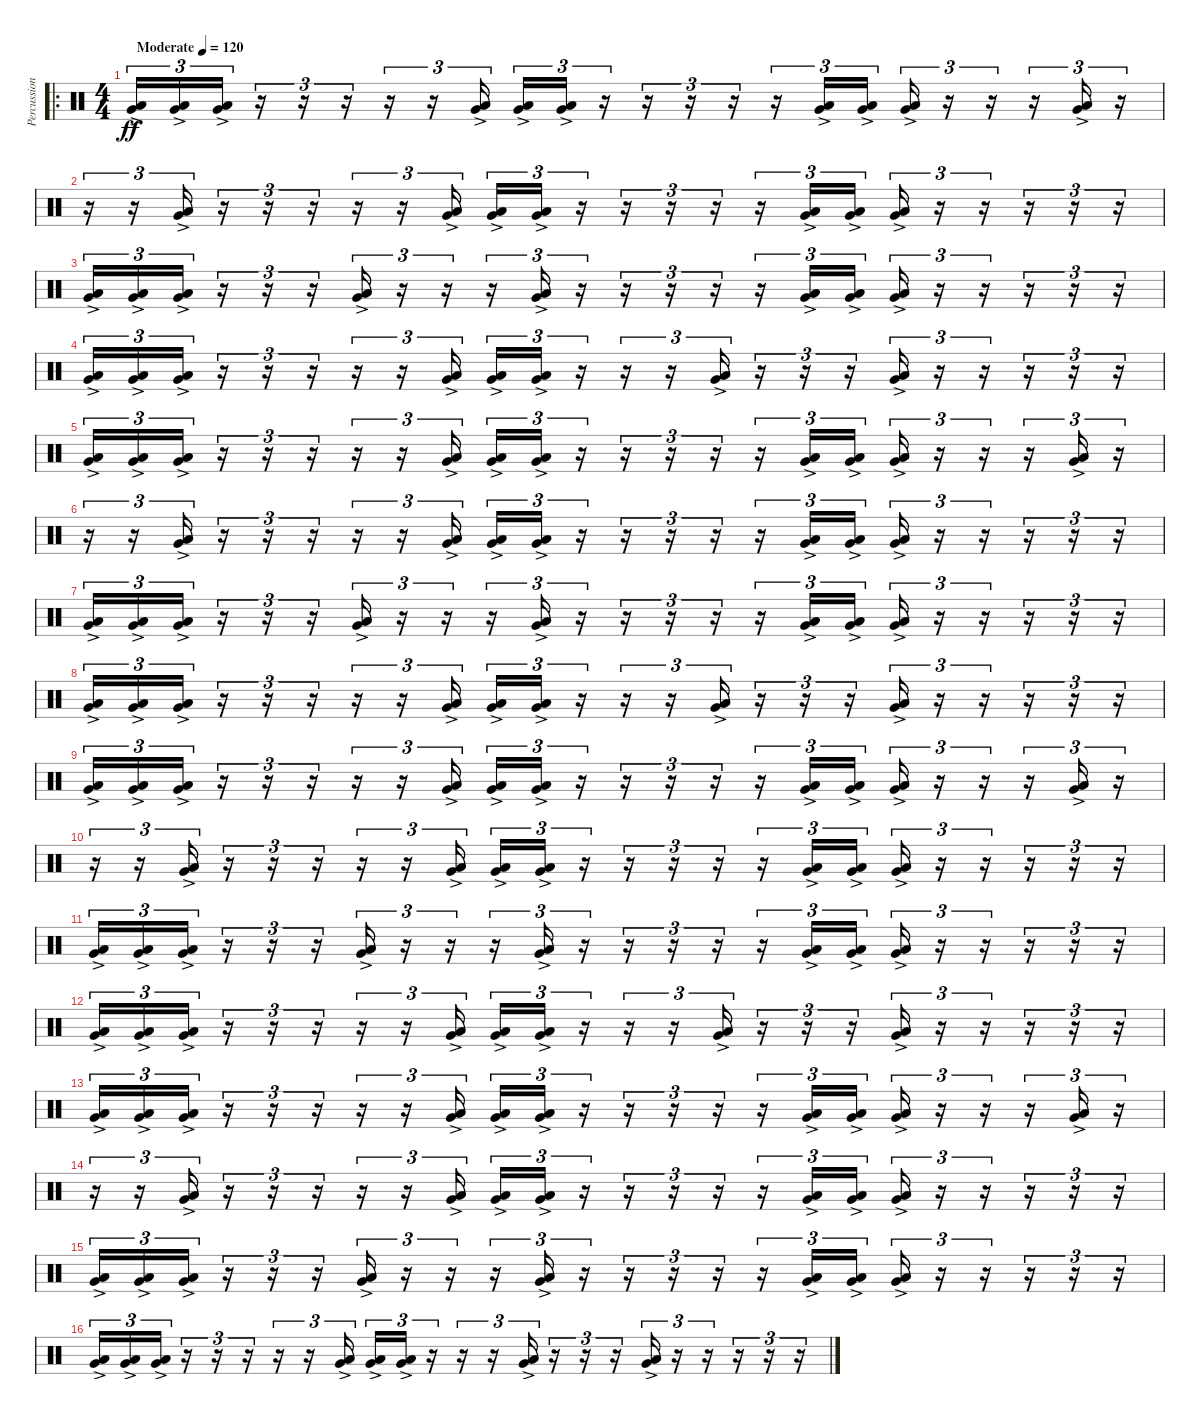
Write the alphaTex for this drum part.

\track ("Percussion" "Percussion") {instrument percussion}
\staff {score}
\articulation defaults
\ro
\ts (4 4)
\tempo (120 "Moderate")
\clef neutral
\ks c
("Very Low Tom (hit)"{ac} "Low Floor Tom (hit)"{ac}).16{tu (3 2) dy ff} ("Very Low Tom (hit)"{ac} "Low Floor Tom (hit)"{ac}).16{tu (3 2)} ("Very Low Tom (hit)"{ac} "Low Floor Tom (hit)"{ac}).16{tu (3 2)} r.16{tu (3 2)} r.16{tu (3 2)} r.16{tu (3 2)} r.16{tu (3 2)} r.16{tu (3 2)} ("Very Low Tom (hit)"{ac} "Low Floor Tom (hit)"{ac}).16{tu (3 2) beam splitsecondary} ("Very Low Tom (hit)"{ac} "Low Floor Tom (hit)"{ac}).16{tu (3 2)} ("Very Low Tom (hit)"{ac} "Low Floor Tom (hit)"{ac}).16{tu (3 2)} r.16{tu (3 2)} r.16{tu (3 2)} r.16{tu (3 2)} r.16{tu (3 2)} r.16{tu (3 2)} ("Very Low Tom (hit)"{ac} "Low Floor Tom (hit)"{ac}).16{tu (3 2)} ("Very Low Tom (hit)"{ac} "Low Floor Tom (hit)"{ac}).16{tu (3 2)} ("Very Low Tom (hit)"{ac} "Low Floor Tom (hit)"{ac}).16{tu (3 2)} r.16{tu (3 2)} r.16{tu (3 2)} r.16{tu (3 2)} ("Very Low Tom (hit)"{ac} "Low Floor Tom (hit)"{ac}).16{tu (3 2)} r.16{tu (3 2)} |
r.16{tu (3 2)} r.16{tu (3 2)} ("Very Low Tom (hit)"{ac} "Low Floor Tom (hit)"{ac}).16{tu (3 2)} r.16{tu (3 2)} r.16{tu (3 2)} r.16{tu (3 2)} r.16{tu (3 2)} r.16{tu (3 2)} ("Very Low Tom (hit)"{ac} "Low Floor Tom (hit)"{ac}).16{tu (3 2) beam splitsecondary} ("Very Low Tom (hit)"{ac} "Low Floor Tom (hit)"{ac}).16{tu (3 2)} ("Very Low Tom (hit)"{ac} "Low Floor Tom (hit)"{ac}).16{tu (3 2)} r.16{tu (3 2)} r.16{tu (3 2)} r.16{tu (3 2)} r.16{tu (3 2)} r.16{tu (3 2)} ("Very Low Tom (hit)"{ac} "Low Floor Tom (hit)"{ac}).16{tu (3 2)} ("Very Low Tom (hit)"{ac} "Low Floor Tom (hit)"{ac}).16{tu (3 2)} ("Very Low Tom (hit)"{ac} "Low Floor Tom (hit)"{ac}).16{tu (3 2)} r.16{tu (3 2)} r.16{tu (3 2)} r.16{tu (3 2)} r.16{tu (3 2)} r.16{tu (3 2)} |
("Very Low Tom (hit)"{ac} "Low Floor Tom (hit)"{ac}).16{tu (3 2)} ("Very Low Tom (hit)"{ac} "Low Floor Tom (hit)"{ac}).16{tu (3 2)} ("Very Low Tom (hit)"{ac} "Low Floor Tom (hit)"{ac}).16{tu (3 2)} r.16{tu (3 2)} r.16{tu (3 2)} r.16{tu (3 2)} ("Very Low Tom (hit)"{ac} "Low Floor Tom (hit)"{ac}).16{tu (3 2)} r.16{tu (3 2)} r.16{tu (3 2)} r.16{tu (3 2)} ("Very Low Tom (hit)"{ac} "Low Floor Tom (hit)"{ac}).16{tu (3 2)} r.16{tu (3 2)} r.16{tu (3 2)} r.16{tu (3 2)} r.16{tu (3 2)} r.16{tu (3 2)} ("Very Low Tom (hit)"{ac} "Low Floor Tom (hit)"{ac}).16{tu (3 2)} ("Very Low Tom (hit)"{ac} "Low Floor Tom (hit)"{ac}).16{tu (3 2)} ("Very Low Tom (hit)"{ac} "Low Floor Tom (hit)"{ac}).16{tu (3 2)} r.16{tu (3 2)} r.16{tu (3 2)} r.16{tu (3 2)} r.16{tu (3 2)} r.16{tu (3 2)} |
("Very Low Tom (hit)"{ac} "Low Floor Tom (hit)"{ac}).16{tu (3 2)} ("Very Low Tom (hit)"{ac} "Low Floor Tom (hit)"{ac}).16{tu (3 2)} ("Very Low Tom (hit)"{ac} "Low Floor Tom (hit)"{ac}).16{tu (3 2)} r.16{tu (3 2)} r.16{tu (3 2)} r.16{tu (3 2)} r.16{tu (3 2)} r.16{tu (3 2)} ("Very Low Tom (hit)"{ac} "Low Floor Tom (hit)"{ac}).16{tu (3 2) beam splitsecondary} ("Very Low Tom (hit)"{ac} "Low Floor Tom (hit)"{ac}).16{tu (3 2)} ("Very Low Tom (hit)"{ac} "Low Floor Tom (hit)"{ac}).16{tu (3 2)} r.16{tu (3 2)} r.16{tu (3 2)} r.16{tu (3 2)} ("Very Low Tom (hit)"{ac} "Low Floor Tom (hit)"{ac}).16{tu (3 2)} r.16{tu (3 2)} r.16{tu (3 2)} r.16{tu (3 2)} ("Very Low Tom (hit)"{ac} "Low Floor Tom (hit)"{ac}).16{tu (3 2)} r.16{tu (3 2)} r.16{tu (3 2)} r.16{tu (3 2)} r.16{tu (3 2)} r.16{tu (3 2)} |
("Very Low Tom (hit)"{ac} "Low Floor Tom (hit)"{ac}).16{tu (3 2)} ("Very Low Tom (hit)"{ac} "Low Floor Tom (hit)"{ac}).16{tu (3 2)} ("Very Low Tom (hit)"{ac} "Low Floor Tom (hit)"{ac}).16{tu (3 2)} r.16{tu (3 2)} r.16{tu (3 2)} r.16{tu (3 2)} r.16{tu (3 2)} r.16{tu (3 2)} ("Very Low Tom (hit)"{ac} "Low Floor Tom (hit)"{ac}).16{tu (3 2) beam splitsecondary} ("Very Low Tom (hit)"{ac} "Low Floor Tom (hit)"{ac}).16{tu (3 2)} ("Very Low Tom (hit)"{ac} "Low Floor Tom (hit)"{ac}).16{tu (3 2)} r.16{tu (3 2)} r.16{tu (3 2)} r.16{tu (3 2)} r.16{tu (3 2)} r.16{tu (3 2)} ("Very Low Tom (hit)"{ac} "Low Floor Tom (hit)"{ac}).16{tu (3 2)} ("Very Low Tom (hit)"{ac} "Low Floor Tom (hit)"{ac}).16{tu (3 2)} ("Very Low Tom (hit)"{ac} "Low Floor Tom (hit)"{ac}).16{tu (3 2)} r.16{tu (3 2)} r.16{tu (3 2)} r.16{tu (3 2)} ("Very Low Tom (hit)"{ac} "Low Floor Tom (hit)"{ac}).16{tu (3 2)} r.16{tu (3 2)} |
r.16{tu (3 2)} r.16{tu (3 2)} ("Very Low Tom (hit)"{ac} "Low Floor Tom (hit)"{ac}).16{tu (3 2)} r.16{tu (3 2)} r.16{tu (3 2)} r.16{tu (3 2)} r.16{tu (3 2)} r.16{tu (3 2)} ("Very Low Tom (hit)"{ac} "Low Floor Tom (hit)"{ac}).16{tu (3 2) beam splitsecondary} ("Very Low Tom (hit)"{ac} "Low Floor Tom (hit)"{ac}).16{tu (3 2)} ("Very Low Tom (hit)"{ac} "Low Floor Tom (hit)"{ac}).16{tu (3 2)} r.16{tu (3 2)} r.16{tu (3 2)} r.16{tu (3 2)} r.16{tu (3 2)} r.16{tu (3 2)} ("Very Low Tom (hit)"{ac} "Low Floor Tom (hit)"{ac}).16{tu (3 2)} ("Very Low Tom (hit)"{ac} "Low Floor Tom (hit)"{ac}).16{tu (3 2)} ("Very Low Tom (hit)"{ac} "Low Floor Tom (hit)"{ac}).16{tu (3 2)} r.16{tu (3 2)} r.16{tu (3 2)} r.16{tu (3 2)} r.16{tu (3 2)} r.16{tu (3 2)} |
("Very Low Tom (hit)"{ac} "Low Floor Tom (hit)"{ac}).16{tu (3 2)} ("Very Low Tom (hit)"{ac} "Low Floor Tom (hit)"{ac}).16{tu (3 2)} ("Very Low Tom (hit)"{ac} "Low Floor Tom (hit)"{ac}).16{tu (3 2)} r.16{tu (3 2)} r.16{tu (3 2)} r.16{tu (3 2)} ("Very Low Tom (hit)"{ac} "Low Floor Tom (hit)"{ac}).16{tu (3 2)} r.16{tu (3 2)} r.16{tu (3 2)} r.16{tu (3 2)} ("Very Low Tom (hit)"{ac} "Low Floor Tom (hit)"{ac}).16{tu (3 2)} r.16{tu (3 2)} r.16{tu (3 2)} r.16{tu (3 2)} r.16{tu (3 2)} r.16{tu (3 2)} ("Very Low Tom (hit)"{ac} "Low Floor Tom (hit)"{ac}).16{tu (3 2)} ("Very Low Tom (hit)"{ac} "Low Floor Tom (hit)"{ac}).16{tu (3 2)} ("Very Low Tom (hit)"{ac} "Low Floor Tom (hit)"{ac}).16{tu (3 2)} r.16{tu (3 2)} r.16{tu (3 2)} r.16{tu (3 2)} r.16{tu (3 2)} r.16{tu (3 2)} |
("Very Low Tom (hit)"{ac} "Low Floor Tom (hit)"{ac}).16{tu (3 2)} ("Very Low Tom (hit)"{ac} "Low Floor Tom (hit)"{ac}).16{tu (3 2)} ("Very Low Tom (hit)"{ac} "Low Floor Tom (hit)"{ac}).16{tu (3 2)} r.16{tu (3 2)} r.16{tu (3 2)} r.16{tu (3 2)} r.16{tu (3 2)} r.16{tu (3 2)} ("Very Low Tom (hit)"{ac} "Low Floor Tom (hit)"{ac}).16{tu (3 2) beam splitsecondary} ("Very Low Tom (hit)"{ac} "Low Floor Tom (hit)"{ac}).16{tu (3 2)} ("Very Low Tom (hit)"{ac} "Low Floor Tom (hit)"{ac}).16{tu (3 2)} r.16{tu (3 2)} r.16{tu (3 2)} r.16{tu (3 2)} ("Very Low Tom (hit)"{ac} "Low Floor Tom (hit)"{ac}).16{tu (3 2)} r.16{tu (3 2)} r.16{tu (3 2)} r.16{tu (3 2)} ("Very Low Tom (hit)"{ac} "Low Floor Tom (hit)"{ac}).16{tu (3 2)} r.16{tu (3 2)} r.16{tu (3 2)} r.16{tu (3 2)} r.16{tu (3 2)} r.16{tu (3 2)} |
("Very Low Tom (hit)"{ac} "Low Floor Tom (hit)"{ac}).16{tu (3 2)} ("Very Low Tom (hit)"{ac} "Low Floor Tom (hit)"{ac}).16{tu (3 2)} ("Very Low Tom (hit)"{ac} "Low Floor Tom (hit)"{ac}).16{tu (3 2)} r.16{tu (3 2)} r.16{tu (3 2)} r.16{tu (3 2)} r.16{tu (3 2)} r.16{tu (3 2)} ("Very Low Tom (hit)"{ac} "Low Floor Tom (hit)"{ac}).16{tu (3 2) beam splitsecondary} ("Very Low Tom (hit)"{ac} "Low Floor Tom (hit)"{ac}).16{tu (3 2)} ("Very Low Tom (hit)"{ac} "Low Floor Tom (hit)"{ac}).16{tu (3 2)} r.16{tu (3 2)} r.16{tu (3 2)} r.16{tu (3 2)} r.16{tu (3 2)} r.16{tu (3 2)} ("Very Low Tom (hit)"{ac} "Low Floor Tom (hit)"{ac}).16{tu (3 2)} ("Very Low Tom (hit)"{ac} "Low Floor Tom (hit)"{ac}).16{tu (3 2)} ("Very Low Tom (hit)"{ac} "Low Floor Tom (hit)"{ac}).16{tu (3 2)} r.16{tu (3 2)} r.16{tu (3 2)} r.16{tu (3 2)} ("Very Low Tom (hit)"{ac} "Low Floor Tom (hit)"{ac}).16{tu (3 2)} r.16{tu (3 2)} |
r.16{tu (3 2)} r.16{tu (3 2)} ("Very Low Tom (hit)"{ac} "Low Floor Tom (hit)"{ac}).16{tu (3 2)} r.16{tu (3 2)} r.16{tu (3 2)} r.16{tu (3 2)} r.16{tu (3 2)} r.16{tu (3 2)} ("Very Low Tom (hit)"{ac} "Low Floor Tom (hit)"{ac}).16{tu (3 2) beam splitsecondary} ("Very Low Tom (hit)"{ac} "Low Floor Tom (hit)"{ac}).16{tu (3 2)} ("Very Low Tom (hit)"{ac} "Low Floor Tom (hit)"{ac}).16{tu (3 2)} r.16{tu (3 2)} r.16{tu (3 2)} r.16{tu (3 2)} r.16{tu (3 2)} r.16{tu (3 2)} ("Very Low Tom (hit)"{ac} "Low Floor Tom (hit)"{ac}).16{tu (3 2)} ("Very Low Tom (hit)"{ac} "Low Floor Tom (hit)"{ac}).16{tu (3 2)} ("Very Low Tom (hit)"{ac} "Low Floor Tom (hit)"{ac}).16{tu (3 2)} r.16{tu (3 2)} r.16{tu (3 2)} r.16{tu (3 2)} r.16{tu (3 2)} r.16{tu (3 2)} |
("Very Low Tom (hit)"{ac} "Low Floor Tom (hit)"{ac}).16{tu (3 2)} ("Very Low Tom (hit)"{ac} "Low Floor Tom (hit)"{ac}).16{tu (3 2)} ("Very Low Tom (hit)"{ac} "Low Floor Tom (hit)"{ac}).16{tu (3 2)} r.16{tu (3 2)} r.16{tu (3 2)} r.16{tu (3 2)} ("Very Low Tom (hit)"{ac} "Low Floor Tom (hit)"{ac}).16{tu (3 2)} r.16{tu (3 2)} r.16{tu (3 2)} r.16{tu (3 2)} ("Very Low Tom (hit)"{ac} "Low Floor Tom (hit)"{ac}).16{tu (3 2)} r.16{tu (3 2)} r.16{tu (3 2)} r.16{tu (3 2)} r.16{tu (3 2)} r.16{tu (3 2)} ("Very Low Tom (hit)"{ac} "Low Floor Tom (hit)"{ac}).16{tu (3 2)} ("Very Low Tom (hit)"{ac} "Low Floor Tom (hit)"{ac}).16{tu (3 2)} ("Very Low Tom (hit)"{ac} "Low Floor Tom (hit)"{ac}).16{tu (3 2)} r.16{tu (3 2)} r.16{tu (3 2)} r.16{tu (3 2)} r.16{tu (3 2)} r.16{tu (3 2)} |
("Very Low Tom (hit)"{ac} "Low Floor Tom (hit)"{ac}).16{tu (3 2)} ("Very Low Tom (hit)"{ac} "Low Floor Tom (hit)"{ac}).16{tu (3 2)} ("Very Low Tom (hit)"{ac} "Low Floor Tom (hit)"{ac}).16{tu (3 2)} r.16{tu (3 2)} r.16{tu (3 2)} r.16{tu (3 2)} r.16{tu (3 2)} r.16{tu (3 2)} ("Very Low Tom (hit)"{ac} "Low Floor Tom (hit)"{ac}).16{tu (3 2) beam splitsecondary} ("Very Low Tom (hit)"{ac} "Low Floor Tom (hit)"{ac}).16{tu (3 2)} ("Very Low Tom (hit)"{ac} "Low Floor Tom (hit)"{ac}).16{tu (3 2)} r.16{tu (3 2)} r.16{tu (3 2)} r.16{tu (3 2)} ("Very Low Tom (hit)"{ac} "Low Floor Tom (hit)"{ac}).16{tu (3 2)} r.16{tu (3 2)} r.16{tu (3 2)} r.16{tu (3 2)} ("Very Low Tom (hit)"{ac} "Low Floor Tom (hit)"{ac}).16{tu (3 2)} r.16{tu (3 2)} r.16{tu (3 2)} r.16{tu (3 2)} r.16{tu (3 2)} r.16{tu (3 2)} |
("Very Low Tom (hit)"{ac} "Low Floor Tom (hit)"{ac}).16{tu (3 2)} ("Very Low Tom (hit)"{ac} "Low Floor Tom (hit)"{ac}).16{tu (3 2)} ("Very Low Tom (hit)"{ac} "Low Floor Tom (hit)"{ac}).16{tu (3 2)} r.16{tu (3 2)} r.16{tu (3 2)} r.16{tu (3 2)} r.16{tu (3 2)} r.16{tu (3 2)} ("Very Low Tom (hit)"{ac} "Low Floor Tom (hit)"{ac}).16{tu (3 2) beam splitsecondary} ("Very Low Tom (hit)"{ac} "Low Floor Tom (hit)"{ac}).16{tu (3 2)} ("Very Low Tom (hit)"{ac} "Low Floor Tom (hit)"{ac}).16{tu (3 2)} r.16{tu (3 2)} r.16{tu (3 2)} r.16{tu (3 2)} r.16{tu (3 2)} r.16{tu (3 2)} ("Very Low Tom (hit)"{ac} "Low Floor Tom (hit)"{ac}).16{tu (3 2)} ("Very Low Tom (hit)"{ac} "Low Floor Tom (hit)"{ac}).16{tu (3 2)} ("Very Low Tom (hit)"{ac} "Low Floor Tom (hit)"{ac}).16{tu (3 2)} r.16{tu (3 2)} r.16{tu (3 2)} r.16{tu (3 2)} ("Very Low Tom (hit)"{ac} "Low Floor Tom (hit)"{ac}).16{tu (3 2)} r.16{tu (3 2)} |
r.16{tu (3 2)} r.16{tu (3 2)} ("Very Low Tom (hit)"{ac} "Low Floor Tom (hit)"{ac}).16{tu (3 2)} r.16{tu (3 2)} r.16{tu (3 2)} r.16{tu (3 2)} r.16{tu (3 2)} r.16{tu (3 2)} ("Very Low Tom (hit)"{ac} "Low Floor Tom (hit)"{ac}).16{tu (3 2) beam splitsecondary} ("Very Low Tom (hit)"{ac} "Low Floor Tom (hit)"{ac}).16{tu (3 2)} ("Very Low Tom (hit)"{ac} "Low Floor Tom (hit)"{ac}).16{tu (3 2)} r.16{tu (3 2)} r.16{tu (3 2)} r.16{tu (3 2)} r.16{tu (3 2)} r.16{tu (3 2)} ("Very Low Tom (hit)"{ac} "Low Floor Tom (hit)"{ac}).16{tu (3 2)} ("Very Low Tom (hit)"{ac} "Low Floor Tom (hit)"{ac}).16{tu (3 2)} ("Very Low Tom (hit)"{ac} "Low Floor Tom (hit)"{ac}).16{tu (3 2)} r.16{tu (3 2)} r.16{tu (3 2)} r.16{tu (3 2)} r.16{tu (3 2)} r.16{tu (3 2)} |
("Very Low Tom (hit)"{ac} "Low Floor Tom (hit)"{ac}).16{tu (3 2)} ("Very Low Tom (hit)"{ac} "Low Floor Tom (hit)"{ac}).16{tu (3 2)} ("Very Low Tom (hit)"{ac} "Low Floor Tom (hit)"{ac}).16{tu (3 2)} r.16{tu (3 2)} r.16{tu (3 2)} r.16{tu (3 2)} ("Very Low Tom (hit)"{ac} "Low Floor Tom (hit)"{ac}).16{tu (3 2)} r.16{tu (3 2)} r.16{tu (3 2)} r.16{tu (3 2)} ("Very Low Tom (hit)"{ac} "Low Floor Tom (hit)"{ac}).16{tu (3 2)} r.16{tu (3 2)} r.16{tu (3 2)} r.16{tu (3 2)} r.16{tu (3 2)} r.16{tu (3 2)} ("Very Low Tom (hit)"{ac} "Low Floor Tom (hit)"{ac}).16{tu (3 2)} ("Very Low Tom (hit)"{ac} "Low Floor Tom (hit)"{ac}).16{tu (3 2)} ("Very Low Tom (hit)"{ac} "Low Floor Tom (hit)"{ac}).16{tu (3 2)} r.16{tu (3 2)} r.16{tu (3 2)} r.16{tu (3 2)} r.16{tu (3 2)} r.16{tu (3 2)} |
("Very Low Tom (hit)"{ac} "Low Floor Tom (hit)"{ac}).16{tu (3 2)} ("Very Low Tom (hit)"{ac} "Low Floor Tom (hit)"{ac}).16{tu (3 2)} ("Very Low Tom (hit)"{ac} "Low Floor Tom (hit)"{ac}).16{tu (3 2)} r.16{tu (3 2)} r.16{tu (3 2)} r.16{tu (3 2)} r.16{tu (3 2)} r.16{tu (3 2)} ("Very Low Tom (hit)"{ac} "Low Floor Tom (hit)"{ac}).16{tu (3 2) beam splitsecondary} ("Very Low Tom (hit)"{ac} "Low Floor Tom (hit)"{ac}).16{tu (3 2)} ("Very Low Tom (hit)"{ac} "Low Floor Tom (hit)"{ac}).16{tu (3 2)} r.16{tu (3 2)} r.16{tu (3 2)} r.16{tu (3 2)} ("Very Low Tom (hit)"{ac} "Low Floor Tom (hit)"{ac}).16{tu (3 2)} r.16{tu (3 2)} r.16{tu (3 2)} r.16{tu (3 2)} ("Very Low Tom (hit)"{ac} "Low Floor Tom (hit)"{ac}).16{tu (3 2)} r.16{tu (3 2)} r.16{tu (3 2)} r.16{tu (3 2)} r.16{tu (3 2)} r.16{tu (3 2)}
